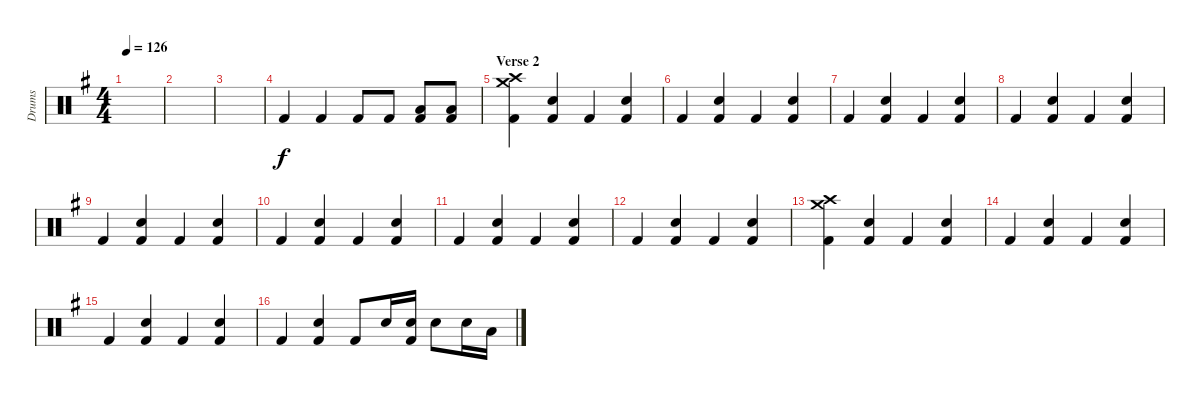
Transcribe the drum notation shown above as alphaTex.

\track ("Drums" "Drums") {instrument percussion}
\staff {score}
\articulation defaults
\ts (4 4)
\tempo 126
\clef neutral
\ks g
|
|
|
"Kick (hit) 2".4 "Kick (hit) 2".4 "Kick (hit) 2".8 "Kick (hit) 2".8 ("Low Floor Tom (hit)" "Kick (hit) 2").8 ("Low Floor Tom (hit)" "Kick (hit) 2").8 |
\section ("" "Verse 2")
("Crash medium (hit)" "Crash high (hit)" "Kick (hit) 2").4 ("Snare (hit) 2" "Kick (hit) 2").4 "Kick (hit) 2".4 ("Snare (hit) 2" "Kick (hit) 2").4 |
"Kick (hit) 2".4 ("Snare (hit) 2" "Kick (hit) 2").4 "Kick (hit) 2".4 ("Snare (hit) 2" "Kick (hit) 2").4 |
"Kick (hit) 2".4 ("Snare (hit) 2" "Kick (hit) 2").4 "Kick (hit) 2".4 ("Snare (hit) 2" "Kick (hit) 2").4 |
"Kick (hit) 2".4 ("Snare (hit) 2" "Kick (hit) 2").4 "Kick (hit) 2".4 ("Snare (hit) 2" "Kick (hit) 2").4 |
"Kick (hit) 2".4 ("Snare (hit) 2" "Kick (hit) 2").4 "Kick (hit) 2".4 ("Snare (hit) 2" "Kick (hit) 2").4 |
"Kick (hit) 2".4 ("Snare (hit) 2" "Kick (hit) 2").4 "Kick (hit) 2".4 ("Snare (hit) 2" "Kick (hit) 2").4 |
"Kick (hit) 2".4 ("Snare (hit) 2" "Kick (hit) 2").4 "Kick (hit) 2".4 ("Snare (hit) 2" "Kick (hit) 2").4 |
"Kick (hit) 2".4 ("Snare (hit) 2" "Kick (hit) 2").4 "Kick (hit) 2".4 ("Snare (hit) 2" "Kick (hit) 2").4 |
("Crash medium (hit)" "Crash high (hit)" "Kick (hit) 2").4 ("Snare (hit) 2" "Kick (hit) 2").4 "Kick (hit) 2".4 ("Snare (hit) 2" "Kick (hit) 2").4 |
"Kick (hit) 2".4 ("Snare (hit) 2" "Kick (hit) 2").4 "Kick (hit) 2".4 ("Snare (hit) 2" "Kick (hit) 2").4 |
"Kick (hit) 2".4 ("Snare (hit) 2" "Kick (hit) 2").4 "Kick (hit) 2".4 ("Snare (hit) 2" "Kick (hit) 2").4 |
"Kick (hit) 2".4 ("Snare (hit) 2" "Kick (hit) 2").4 "Kick (hit) 2".8 "Snare (hit) 2".16 ("Snare (hit) 2" "Kick (hit) 2").16 "Snare (hit) 2".8 "Snare (hit) 2".16 "Low Floor Tom (hit)".16
